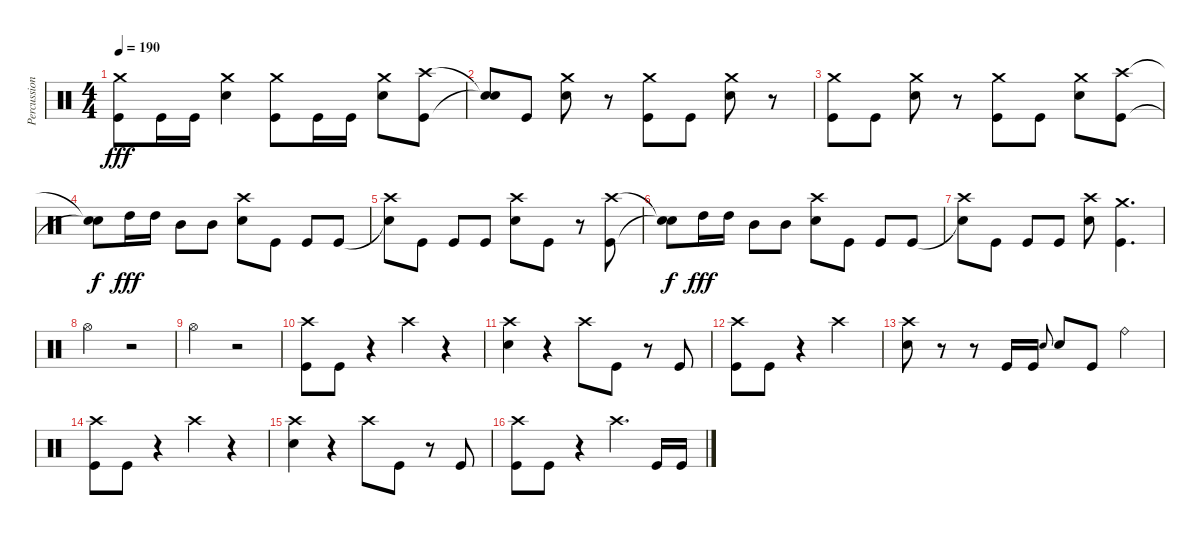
\track ("Percussion" "Percussion") {instrument percussion}
\staff {score}
\articulation defaults
\ts (4 4)
\tempo 190
\clef neutral
\ks c
("Crash medium (hit)" "Kick (hit)").8{dy fff} "Kick (hit)".16 "Kick (hit)".16 ("Crash medium (hit)" "Snare (hit) 2").4 ("Crash medium (hit)" "Kick (hit)").8 "Kick (hit)".16 "Kick (hit)".16 ("Crash medium (hit)" "Snare (hit) 2").8 ("Crash high (hit)" "Kick (hit)").8 |
("Snare (hit)"{t} "Snare (hit)"{t}).8 "Kick (hit)".8 ("Crash medium (hit)" "Snare (hit) 2").8 r.8 ("Crash medium (hit)" "Kick (hit)").8 "Kick (hit)".8 ("Crash medium (hit)" "Snare (hit) 2").8 r.8 |
("Crash medium (hit)" "Kick (hit)").8 "Kick (hit)".8 ("Crash medium (hit)" "Snare (hit) 2").8 r.8 ("Crash medium (hit)" "Kick (hit)").8 "Kick (hit)".8 ("Crash medium (hit)" "Snare (hit) 2").8 ("Crash high (hit)" "Kick (hit)").8 |
("Snare (hit)"{t} "Snare (hit)"{t}).8{dy f} "High Tom (hit)".16{dy fff} "High Tom (hit)".16 "Mid Tom (hit)".8 "Mid Tom (hit)".8 ("Snare (hit) 2" "Crash high (hit)").8 "Kick (hit)".8 "Kick (hit)".8 "Kick (hit)".8 |
("Snare (hit)"{t} "Crash high (hit)").8 "Kick (hit)".8 "Kick (hit)".8 "Kick (hit)".8 ("Snare (hit) 2" "Crash high (hit)").8 "Kick (hit)".8 r.8 ("Crash high (hit)" "Kick (hit)").8 |
("Snare (hit)"{t} "Snare (hit)"{t}).8{dy f} "High Tom (hit)".16{dy fff} "High Tom (hit)".16 "Mid Tom (hit)".8 "Mid Tom (hit)".8 ("Snare (hit) 2" "Crash high (hit)").8 "Kick (hit)".8 "Kick (hit)".8 "Kick (hit)".8 |
("Snare (hit)"{t} "Crash high (hit)").8 "Kick (hit)".8 "Kick (hit)".8 "Kick (hit)".8 ("Snare (hit) 2" "Crash high (hit)").8 ("Kick (hit)" "Crash medium (hit)").4{d} |
"Hi-Hat (open)".2 r.2 |
"Hi-Hat (open)".2 r.2 |
("Crash high (hit)" "Kick (hit)").8 "Kick (hit)".8 r.4 "Crash high (hit)".4 r.4 |
("Crash high (hit)" "Snare (hit) 2").4 r.4 "Crash high (hit)".8 "Kick (hit)".8 r.8 "Kick (hit)".8 |
("Crash high (hit)" "Kick (hit)").8 "Kick (hit)".8 r.4 "Crash high (hit)".2 |
("Crash high (hit)" "Snare (hit) 2").8 r.8 r.8 "Kick (hit)".16 "Kick (hit)".16 "Snare (hit) 2".8{gr onbeat} "Snare (hit) 2".8 "Kick (hit)".8 "Ride (bell)".4 |
("Crash high (hit)" "Kick (hit)").8 "Kick (hit)".8 r.4 "Crash high (hit)".4 r.4 |
("Crash high (hit)" "Snare (hit) 2").4 r.4 "Crash high (hit)".8 "Kick (hit)".8 r.8 "Kick (hit)".8 |
("Crash high (hit)" "Kick (hit)").8 "Kick (hit)".8 r.4 "Crash high (hit)".4{d} "Kick (hit)".16 "Kick (hit)".16
